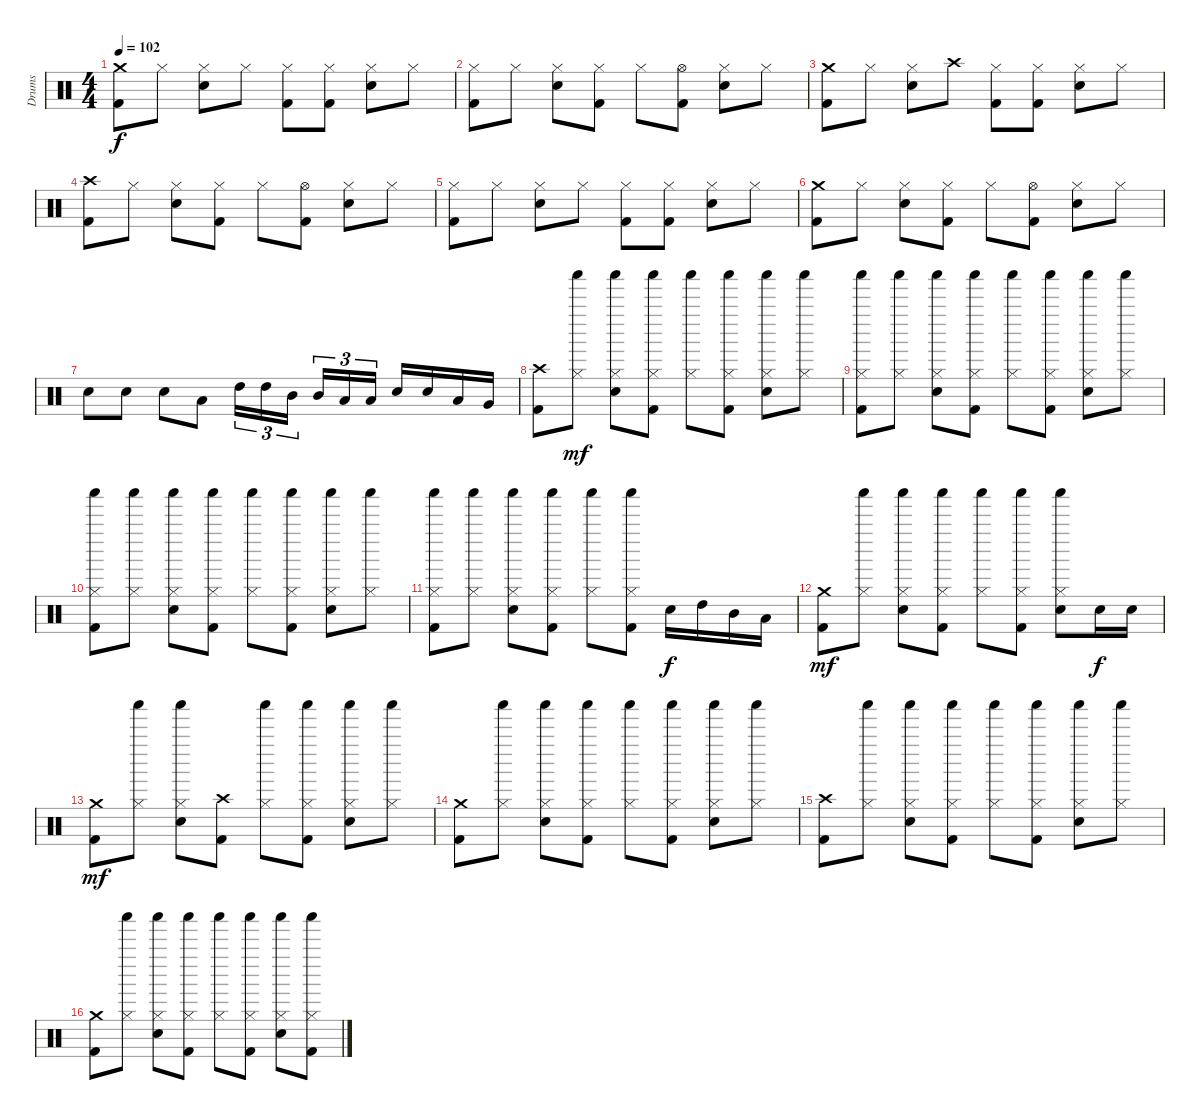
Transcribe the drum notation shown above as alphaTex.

\track ("Drums" "Drums") {instrument percussion}
\staff {score}
\articulation defaults
\ts (4 4)
\tempo 102
\clef neutral
\ks c
("Kick (hit) 2" "Crash medium (hit)").8{dy f} "Hi-Hat (closed)".8 ("Electric Snare (hit)" "Hi-Hat (closed)").8 "Hi-Hat (closed)".8 ("Kick (hit) 2" "Hi-Hat (closed)").8 ("Kick (hit) 2" "Hi-Hat (closed)").8 ("Electric Snare (hit)" "Hi-Hat (closed)").8 "Hi-Hat (closed)".8 |
("Kick (hit) 2" "Hi-Hat (closed)").8 "Hi-Hat (closed)".8 ("Electric Snare (hit)" "Hi-Hat (closed)").8 ("Kick (hit) 2" "Hi-Hat (closed)").8 "Hi-Hat (closed)".8 ("Kick (hit) 2" "Hi-Hat (open)").8 ("Electric Snare (hit)" "Hi-Hat (closed)").8 "Hi-Hat (closed)".8 |
("Kick (hit) 2" "Crash medium (hit)").8 "Hi-Hat (closed)".8 ("Electric Snare (hit)" "Hi-Hat (closed)").8 "Crash high (hit)".8 ("Kick (hit) 2" "Hi-Hat (closed)").8 ("Kick (hit) 2" "Hi-Hat (closed)").8 ("Electric Snare (hit)" "Hi-Hat (closed)").8 "Hi-Hat (closed)".8 |
("Kick (hit) 2" "Crash high (hit)").8 "Hi-Hat (closed)".8 ("Electric Snare (hit)" "Hi-Hat (closed)").8 ("Kick (hit) 2" "Hi-Hat (closed)").8 "Hi-Hat (closed)".8 ("Kick (hit) 2" "Hi-Hat (open)").8 ("Electric Snare (hit)" "Hi-Hat (closed)").8 "Hi-Hat (closed)".8 |
("Kick (hit) 2" "Hi-Hat (closed)").8 "Hi-Hat (closed)".8 ("Electric Snare (hit)" "Hi-Hat (closed)").8 "Hi-Hat (closed)".8 ("Kick (hit) 2" "Hi-Hat (closed)").8 ("Kick (hit) 2" "Hi-Hat (closed)").8 ("Electric Snare (hit)" "Hi-Hat (closed)").8 "Hi-Hat (closed)".8 |
("Kick (hit) 2" "Crash medium (hit)").8 "Hi-Hat (closed)".8 ("Electric Snare (hit)" "Hi-Hat (closed)").8 ("Kick (hit) 2" "Hi-Hat (closed)").8 "Hi-Hat (closed)".8 ("Kick (hit) 2" "Hi-Hat (open)").8 ("Electric Snare (hit)" "Hi-Hat (closed)").8 "Hi-Hat (closed)".8 |
"Snare (hit) 2".8 "Snare (hit) 2".8 "Snare (hit) 2".8 "Low Tom (hit)".8 "High Tom (hit)".16{tu (3 2)} "High Tom (hit)".16{tu (3 2)} "Mid Tom (hit)".16{tu (3 2)} "Mid Tom (hit)".16{tu (3 2)} "Low Tom (hit)".16{tu (3 2)} "Low Tom (hit)".16{tu (3 2)} "Electric Snare (hit)".16 "Electric Snare (hit)".16 "Low Tom (hit)".16 "Very Low Tom (hit)".16 |
("Kick (hit) 2" "Crash high (hit)").8 ("Hi-Hat (closed)" "Shaker (hit)").8{dy mf} ("Electric Snare (hit)" "Hi-Hat (closed)" "Shaker (hit)").8 ("Kick (hit) 2" "Hi-Hat (closed)" "Shaker (hit)").8 ("Hi-Hat (closed)" "Shaker (hit)").8 ("Kick (hit) 2" "Hi-Hat (closed)" "Shaker (hit)").8 ("Electric Snare (hit)" "Hi-Hat (closed)" "Shaker (hit)").8 ("Hi-Hat (closed)" "Shaker (hit)").8 |
("Kick (hit) 2" "Hi-Hat (closed)" "Shaker (hit)").8 ("Hi-Hat (closed)" "Shaker (hit)").8 ("Electric Snare (hit)" "Hi-Hat (closed)" "Shaker (hit)").8 ("Kick (hit) 2" "Hi-Hat (closed)" "Shaker (hit)").8 ("Hi-Hat (closed)" "Shaker (hit)").8 ("Kick (hit) 2" "Hi-Hat (closed)" "Shaker (hit)").8 ("Electric Snare (hit)" "Hi-Hat (closed)" "Shaker (hit)").8 ("Hi-Hat (closed)" "Shaker (hit)").8 |
("Kick (hit) 2" "Hi-Hat (closed)" "Shaker (hit)").8 ("Hi-Hat (closed)" "Shaker (hit)").8 ("Electric Snare (hit)" "Hi-Hat (closed)" "Shaker (hit)").8 ("Kick (hit) 2" "Hi-Hat (closed)" "Shaker (hit)").8 ("Hi-Hat (closed)" "Shaker (hit)").8 ("Kick (hit) 2" "Hi-Hat (closed)" "Shaker (hit)").8 ("Electric Snare (hit)" "Hi-Hat (closed)" "Shaker (hit)").8 ("Hi-Hat (closed)" "Shaker (hit)").8 |
("Kick (hit) 2" "Hi-Hat (closed)" "Shaker (hit)").8 ("Hi-Hat (closed)" "Shaker (hit)").8 ("Electric Snare (hit)" "Hi-Hat (closed)" "Shaker (hit)").8 ("Kick (hit) 2" "Hi-Hat (closed)" "Shaker (hit)").8 ("Hi-Hat (closed)" "Shaker (hit)").8 ("Kick (hit) 2" "Hi-Hat (closed)" "Shaker (hit)").8 "Electric Snare (hit)".16{dy f} "High Tom (hit)".16 "Mid Tom (hit)".16 "Low Tom (hit)".16 |
("Kick (hit) 2" "Crash medium (hit)").8{dy mf} ("Hi-Hat (closed)" "Shaker (hit)").8 ("Electric Snare (hit)" "Hi-Hat (closed)" "Shaker (hit)").8 ("Kick (hit) 2" "Hi-Hat (closed)" "Shaker (hit)").8 ("Hi-Hat (closed)" "Shaker (hit)").8 ("Kick (hit) 2" "Hi-Hat (closed)" "Shaker (hit)").8 ("Electric Snare (hit)" "Hi-Hat (closed)" "Shaker (hit)").8 "Electric Snare (hit)".16{dy f} "Electric Snare (hit)".16 |
("Kick (hit) 2" "Crash medium (hit)").8{dy mf} ("Hi-Hat (closed)" "Shaker (hit)").8 ("Electric Snare (hit)" "Hi-Hat (closed)" "Shaker (hit)").8 ("Kick (hit) 2" "Crash high (hit)").8 ("Hi-Hat (closed)" "Shaker (hit)").8 ("Kick (hit) 2" "Hi-Hat (closed)" "Shaker (hit)").8 ("Electric Snare (hit)" "Hi-Hat (closed)" "Shaker (hit)").8 ("Hi-Hat (closed)" "Shaker (hit)").8 |
("Kick (hit) 2" "Crash medium (hit)").8 ("Hi-Hat (closed)" "Shaker (hit)").8 ("Electric Snare (hit)" "Hi-Hat (closed)" "Shaker (hit)").8 ("Kick (hit) 2" "Hi-Hat (closed)" "Shaker (hit)").8 ("Hi-Hat (closed)" "Shaker (hit)").8 ("Kick (hit) 2" "Hi-Hat (closed)" "Shaker (hit)").8 ("Electric Snare (hit)" "Hi-Hat (closed)" "Shaker (hit)").8 ("Hi-Hat (closed)" "Shaker (hit)").8 |
("Kick (hit) 2" "Crash high (hit)").8 ("Hi-Hat (closed)" "Shaker (hit)").8 ("Electric Snare (hit)" "Hi-Hat (closed)" "Shaker (hit)").8 ("Kick (hit) 2" "Hi-Hat (closed)" "Shaker (hit)").8 ("Hi-Hat (closed)" "Shaker (hit)").8 ("Kick (hit) 2" "Hi-Hat (closed)" "Shaker (hit)").8 ("Electric Snare (hit)" "Hi-Hat (closed)" "Shaker (hit)").8 ("Hi-Hat (closed)" "Shaker (hit)").8 |
("Kick (hit) 2" "Crash medium (hit)").8 ("Hi-Hat (closed)" "Shaker (hit)").8 ("Electric Snare (hit)" "Hi-Hat (closed)" "Shaker (hit)").8 ("Kick (hit) 2" "Hi-Hat (closed)" "Shaker (hit)").8 ("Hi-Hat (closed)" "Shaker (hit)").8 ("Kick (hit) 2" "Hi-Hat (closed)" "Shaker (hit)").8 ("Electric Snare (hit)" "Hi-Hat (closed)" "Shaker (hit)").8 ("Kick (hit) 2" "Hi-Hat (closed)" "Shaker (hit)").8
